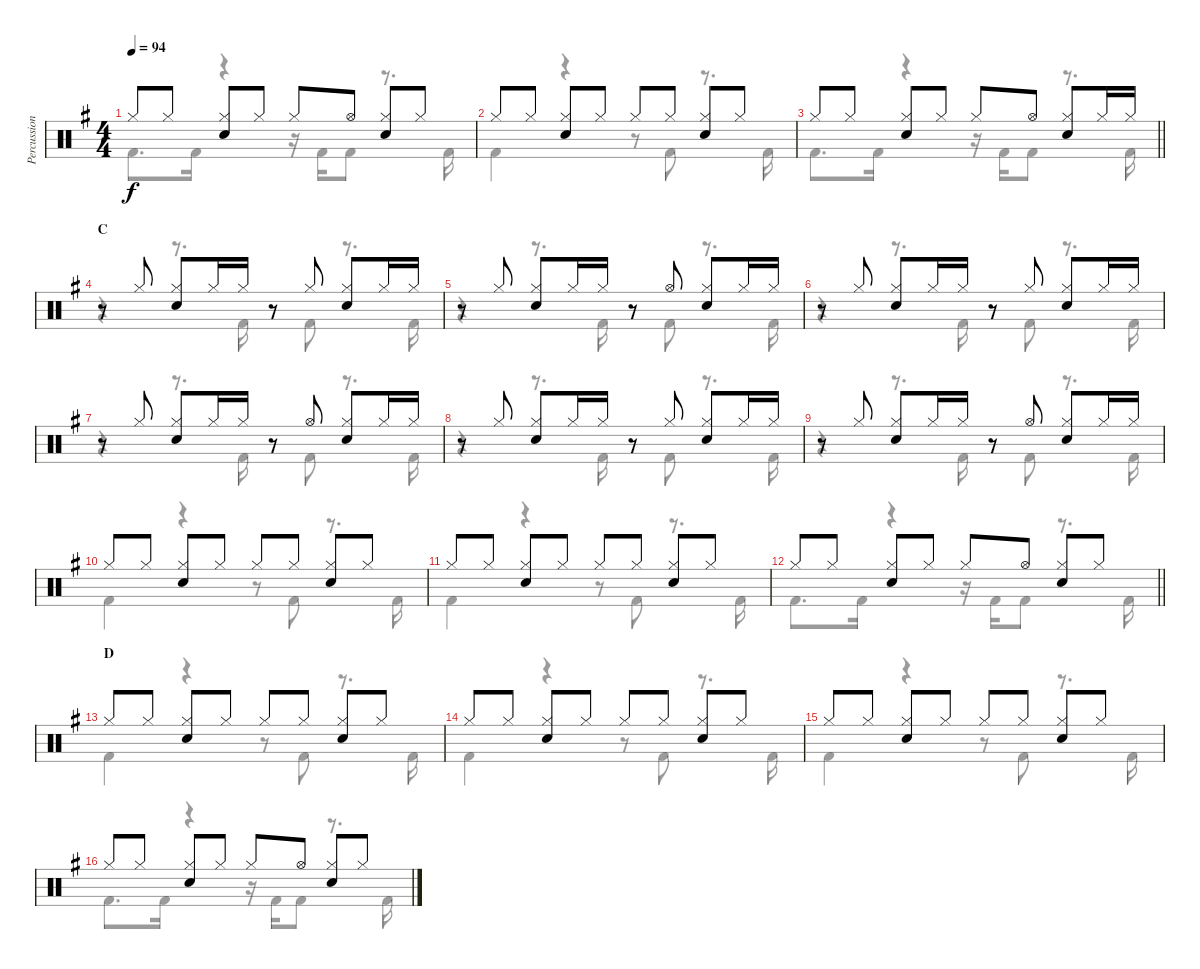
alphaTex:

\track ("Percussion" "Percussion") {instrument percussion}
\staff {score}
\articulation defaults
\voice
\ts (4 4)
\tempo 94
\clef neutral
\ks g "Hi-Hat (closed)".8{dy f} "Hi-Hat (closed)".8
("Hi-Hat (closed)" "Electric Snare (hit)").8 "Hi-Hat (closed)".8 "Hi-Hat (closed)".8 "Hi-Hat (open)".8 ("Hi-Hat (closed)" "Electric Snare (hit)").8 "Hi-Hat (closed)".8 |
"Hi-Hat (closed)".8 "Hi-Hat (closed)".8 ("Hi-Hat (closed)" "Electric Snare (hit)").8 "Hi-Hat (closed)".8 "Hi-Hat (closed)".8 "Hi-Hat (closed)".8 ("Hi-Hat (closed)" "Electric Snare (hit)").8 "Hi-Hat (closed)".8 |
\barLineRight lightlight "Hi-Hat (closed)".8 "Hi-Hat (closed)".8
("Hi-Hat (closed)" "Electric Snare (hit)").8 "Hi-Hat (closed)".8 "Hi-Hat (closed)".8 "Hi-Hat (open)".8 ("Hi-Hat (closed)" "Electric Snare (hit)").8 "Hi-Hat (closed)".16 "Hi-Hat (closed)".16 |
\section ("" "C")
r.8 "Hi-Hat (closed)".8 ("Hi-Hat (closed)" "Electric Snare (hit)").8 "Hi-Hat (closed)".16 "Hi-Hat (closed)".16 r.8 "Hi-Hat (closed)".8 ("Hi-Hat (closed)" "Electric Snare (hit)").8 "Hi-Hat (closed)".16 "Hi-Hat (closed)".16 |
r.8 "Hi-Hat (closed)".8 ("Hi-Hat (closed)" "Electric Snare (hit)").8 "Hi-Hat (closed)".16 "Hi-Hat (closed)".16 r.8 "Hi-Hat (open)".8 ("Hi-Hat (closed)" "Electric Snare (hit)").8 "Hi-Hat (closed)".16 "Hi-Hat (closed)".16 |
r.8 "Hi-Hat (closed)".8 ("Hi-Hat (closed)" "Electric Snare (hit)").8 "Hi-Hat (closed)".16 "Hi-Hat (closed)".16 r.8 "Hi-Hat (closed)".8 ("Hi-Hat (closed)" "Electric Snare (hit)").8 "Hi-Hat (closed)".16 "Hi-Hat (closed)".16 |
r.8 "Hi-Hat (closed)".8 ("Hi-Hat (closed)" "Electric Snare (hit)").8 "Hi-Hat (closed)".16 "Hi-Hat (closed)".16 r.8 "Hi-Hat (open)".8 ("Hi-Hat (closed)" "Electric Snare (hit)").8 "Hi-Hat (closed)".16 "Hi-Hat (closed)".16 |
r.8 "Hi-Hat (closed)".8 ("Hi-Hat (closed)" "Electric Snare (hit)").8 "Hi-Hat (closed)".16 "Hi-Hat (closed)".16 r.8 "Hi-Hat (closed)".8 ("Hi-Hat (closed)" "Electric Snare (hit)").8 "Hi-Hat (closed)".16 "Hi-Hat (closed)".16 |
r.8 "Hi-Hat (closed)".8 ("Hi-Hat (closed)" "Electric Snare (hit)").8 "Hi-Hat (closed)".16 "Hi-Hat (closed)".16 r.8 "Hi-Hat (open)".8 ("Hi-Hat (closed)" "Electric Snare (hit)").8 "Hi-Hat (closed)".16 "Hi-Hat (closed)".16 |
"Hi-Hat (closed)".8 "Hi-Hat (closed)".8 ("Hi-Hat (closed)" "Electric Snare (hit)").8 "Hi-Hat (closed)".8 "Hi-Hat (closed)".8 "Hi-Hat (closed)".8 ("Hi-Hat (closed)" "Electric Snare (hit)").8 "Hi-Hat (closed)".8 |
"Hi-Hat (closed)".8 "Hi-Hat (closed)".8 ("Hi-Hat (closed)" "Electric Snare (hit)").8 "Hi-Hat (closed)".8 "Hi-Hat (closed)".8 "Hi-Hat (closed)".8 ("Hi-Hat (closed)" "Electric Snare (hit)").8 "Hi-Hat (closed)".8 |
\barLineRight lightlight "Hi-Hat (closed)".8 "Hi-Hat (closed)".8
("Hi-Hat (closed)" "Electric Snare (hit)").8 "Hi-Hat (closed)".8 "Hi-Hat (closed)".8 "Hi-Hat (open)".8 ("Hi-Hat (closed)" "Electric Snare (hit)").8 "Hi-Hat (closed)".8 |
\section ("" "D")
"Hi-Hat (closed)".8 "Hi-Hat (closed)".8 ("Hi-Hat (closed)" "Electric Snare (hit)").8 "Hi-Hat (closed)".8 "Hi-Hat (closed)".8 "Hi-Hat (closed)".8 ("Hi-Hat (closed)" "Electric Snare (hit)").8 "Hi-Hat (closed)".8 |
"Hi-Hat (closed)".8 "Hi-Hat (closed)".8 ("Hi-Hat (closed)" "Electric Snare (hit)").8 "Hi-Hat (closed)".8 "Hi-Hat (closed)".8 "Hi-Hat (closed)".8 ("Hi-Hat (closed)" "Electric Snare (hit)").8 "Hi-Hat (closed)".8 |
"Hi-Hat (closed)".8 "Hi-Hat (closed)".8 ("Hi-Hat (closed)" "Electric Snare (hit)").8 "Hi-Hat (closed)".8 "Hi-Hat (closed)".8 "Hi-Hat (closed)".8 ("Hi-Hat (closed)" "Electric Snare (hit)").8 "Hi-Hat (closed)".8 |
"Hi-Hat (closed)".8 "Hi-Hat (closed)".8 ("Hi-Hat (closed)" "Electric Snare (hit)").8 "Hi-Hat (closed)".8 "Hi-Hat (closed)".8 "Hi-Hat (open)".8 ("Hi-Hat (closed)" "Electric Snare (hit)").8 "Hi-Hat (closed)".8
\voice
\clef neutral
\ottava regular
\simile none
\ks g "Kick (hit) 2".8{d dy f} "Kick (hit) 2".16
r.4 r.16 "Kick (hit) 2".16 "Kick (hit) 2".8 r.8{d} "Kick (hit) 2".16 |
"Kick (hit) 2".4 r.4 r.8 "Kick (hit) 2".8 r.8{d} "Kick (hit) 2".16 |
\barLineRight lightlight "Kick (hit) 2".8{d} "Kick (hit) 2".16
r.4 r.16 "Kick (hit) 2".16 "Kick (hit) 2".8 r.8{d} "Kick (hit) 2".16 |
r.4 r.8{d} "Kick (hit) 2".16 r.8 "Kick (hit) 2".8 r.8{d} "Kick (hit) 2".16 |
r.4 r.8{d} "Kick (hit) 2".16 r.8 "Kick (hit) 2".8 r.8{d} "Kick (hit) 2".16 |
r.4 r.8{d} "Kick (hit) 2".16 r.8 "Kick (hit) 2".8 r.8{d} "Kick (hit) 2".16 |
r.4 r.8{d} "Kick (hit) 2".16 r.8 "Kick (hit) 2".8 r.8{d} "Kick (hit) 2".16 |
r.4 r.8{d} "Kick (hit) 2".16 r.8 "Kick (hit) 2".8 r.8{d} "Kick (hit) 2".16 |
r.4 r.8{d} "Kick (hit) 2".16 r.8 "Kick (hit) 2".8 r.8{d} "Kick (hit) 2".16 |
"Kick (hit) 2".4 r.4 r.8 "Kick (hit) 2".8 r.8{d} "Kick (hit) 2".16 |
"Kick (hit) 2".4 r.4 r.8 "Kick (hit) 2".8 r.8{d} "Kick (hit) 2".16 |
\barLineRight lightlight "Kick (hit) 2".8{d} "Kick (hit) 2".16
r.4 r.16 "Kick (hit) 2".16 "Kick (hit) 2".8 r.8{d} "Kick (hit) 2".16 |
"Kick (hit) 2".4 r.4 r.8 "Kick (hit) 2".8 r.8{d} "Kick (hit) 2".16 |
"Kick (hit) 2".4 r.4 r.8 "Kick (hit) 2".8 r.8{d} "Kick (hit) 2".16 |
"Kick (hit) 2".4 r.4 r.8 "Kick (hit) 2".8 r.8{d} "Kick (hit) 2".16 |
"Kick (hit) 2".8{d} "Kick (hit) 2".16 r.4 r.16 "Kick (hit) 2".16 "Kick (hit) 2".8 r.8{d} "Kick (hit) 2".16
